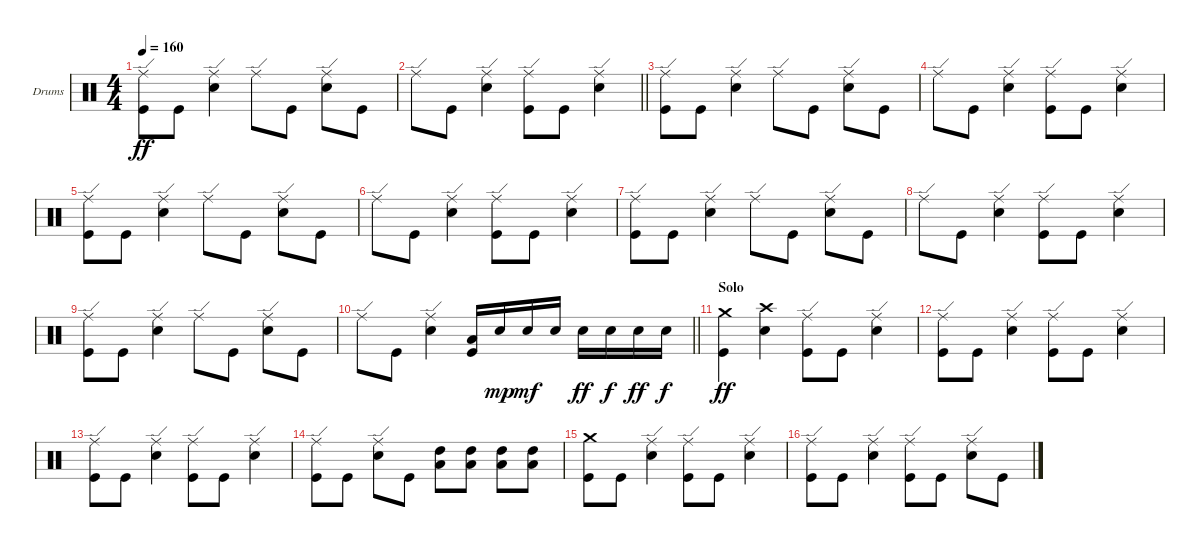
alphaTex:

\bracketExtendMode groupsimilarinstruments
\firstSystemTrackNameOrientation horizontal
\otherSystemsTrackNameOrientation horizontal
\track ("Jean-Paul Gaster" "Drums") {instrument percussion}
\staff {score}
\articulation defaults
\ts (4 4)
\tempo 160
\clef neutral
\ks c
("Ride (edge)" "Kick (hit)").8{dy ff} "Kick (hit)".8 ("Ride (edge)" "Snare (hit) 2").4 "Ride (edge)".8 "Kick (hit)".8 ("Ride (edge)" "Snare (hit) 2").8 "Kick (hit)".8 |
\barLineRight lightlight "Ride (edge)".8 "Kick (hit)".8
("Ride (edge)" "Snare (hit) 2").4 ("Ride (edge)" "Kick (hit)").8 "Kick (hit)".8 ("Ride (edge)" "Snare (hit) 2").4 |
("Ride (edge)" "Kick (hit)").8 "Kick (hit)".8 ("Ride (edge)" "Snare (hit) 2").4 "Ride (edge)".8 "Kick (hit)".8 ("Ride (edge)" "Snare (hit) 2").8 "Kick (hit)".8 |
"Ride (edge)".8 "Kick (hit)".8 ("Ride (edge)" "Snare (hit) 2").4 ("Ride (edge)" "Kick (hit)").8 "Kick (hit)".8 ("Ride (edge)" "Snare (hit) 2").4 |
("Ride (edge)" "Kick (hit)").8 "Kick (hit)".8 ("Ride (edge)" "Snare (hit) 2").4 "Ride (edge)".8 "Kick (hit)".8 ("Ride (edge)" "Snare (hit) 2").8 "Kick (hit)".8 |
"Ride (edge)".8 "Kick (hit)".8 ("Ride (edge)" "Snare (hit) 2").4 ("Ride (edge)" "Kick (hit)").8 "Kick (hit)".8 ("Ride (edge)" "Snare (hit) 2").4 |
("Ride (edge)" "Kick (hit)").8 "Kick (hit)".8 ("Ride (edge)" "Snare (hit) 2").4 "Ride (edge)".8 "Kick (hit)".8 ("Ride (edge)" "Snare (hit) 2").8 "Kick (hit)".8 |
"Ride (edge)".8 "Kick (hit)".8 ("Ride (edge)" "Snare (hit) 2").4 ("Ride (edge)" "Kick (hit)").8 "Kick (hit)".8 ("Ride (edge)" "Snare (hit) 2").4 |
("Ride (edge)" "Kick (hit)").8 "Kick (hit)".8 ("Ride (edge)" "Snare (hit) 2").4 "Ride (edge)".8 "Kick (hit)".8 ("Ride (edge)" "Snare (hit) 2").8 "Kick (hit)".8 |
\barLineRight lightlight "Ride (edge)".8 "Kick (hit)".8
("Ride (edge)" "Snare (hit) 2").4 ("Low Tom (hit)" "Kick (hit)").16 "Snare (hit) 2".16{dy mp} "Snare (hit) 2".16{dy mf} "Snare (hit) 2".16 "Snare (hit) 2".16{dy ff} "Snare (hit) 2".16{dy f} "Snare (hit) 2".16{dy ff} "Snare (hit) 2".16{dy f} |
\section ("" "Solo")
("Crash medium (hit)" "Kick (hit)").4{dy ff} ("Crash high (hit)" "Snare (hit) 2").4 ("Ride (edge)" "Kick (hit)").8 "Kick (hit)".8 ("Ride (edge)" "Snare (hit) 2").4 |
("Ride (edge)" "Kick (hit)").8 "Kick (hit)".8 ("Ride (edge)" "Snare (hit) 2").4 ("Ride (edge)" "Kick (hit)").8 "Kick (hit)".8 ("Ride (edge)" "Snare (hit) 2").4 |
("Ride (edge)" "Kick (hit)").8 "Kick (hit)".8 ("Ride (edge)" "Snare (hit) 2").4 ("Ride (edge)" "Kick (hit)").8 "Kick (hit)".8 ("Ride (edge)" "Snare (hit) 2").4 |
("Ride (edge)" "Kick (hit)").8 "Kick (hit)".8 ("Ride (edge)" "Snare (hit) 2").8 "Kick (hit)".8 ("High Tom (hit)" "Low Tom (hit)").8 ("High Tom (hit)" "Low Tom (hit)").8 ("High Tom (hit)" "Low Tom (hit)").8 ("High Tom (hit)" "Low Tom (hit)").8 |
("Crash medium (hit)" "Kick (hit)").8 "Kick (hit)".8 ("Ride (edge)" "Snare (hit) 2").4 ("Ride (edge)" "Kick (hit)").8 "Kick (hit)".8 ("Ride (edge)" "Snare (hit) 2").4 |
("Ride (edge)" "Kick (hit)").8 "Kick (hit)".8 ("Ride (edge)" "Snare (hit) 2").4 ("Ride (edge)" "Kick (hit)").8 "Kick (hit)".8 ("Ride (edge)" "Snare (hit) 2").8 "Kick (hit)".8
